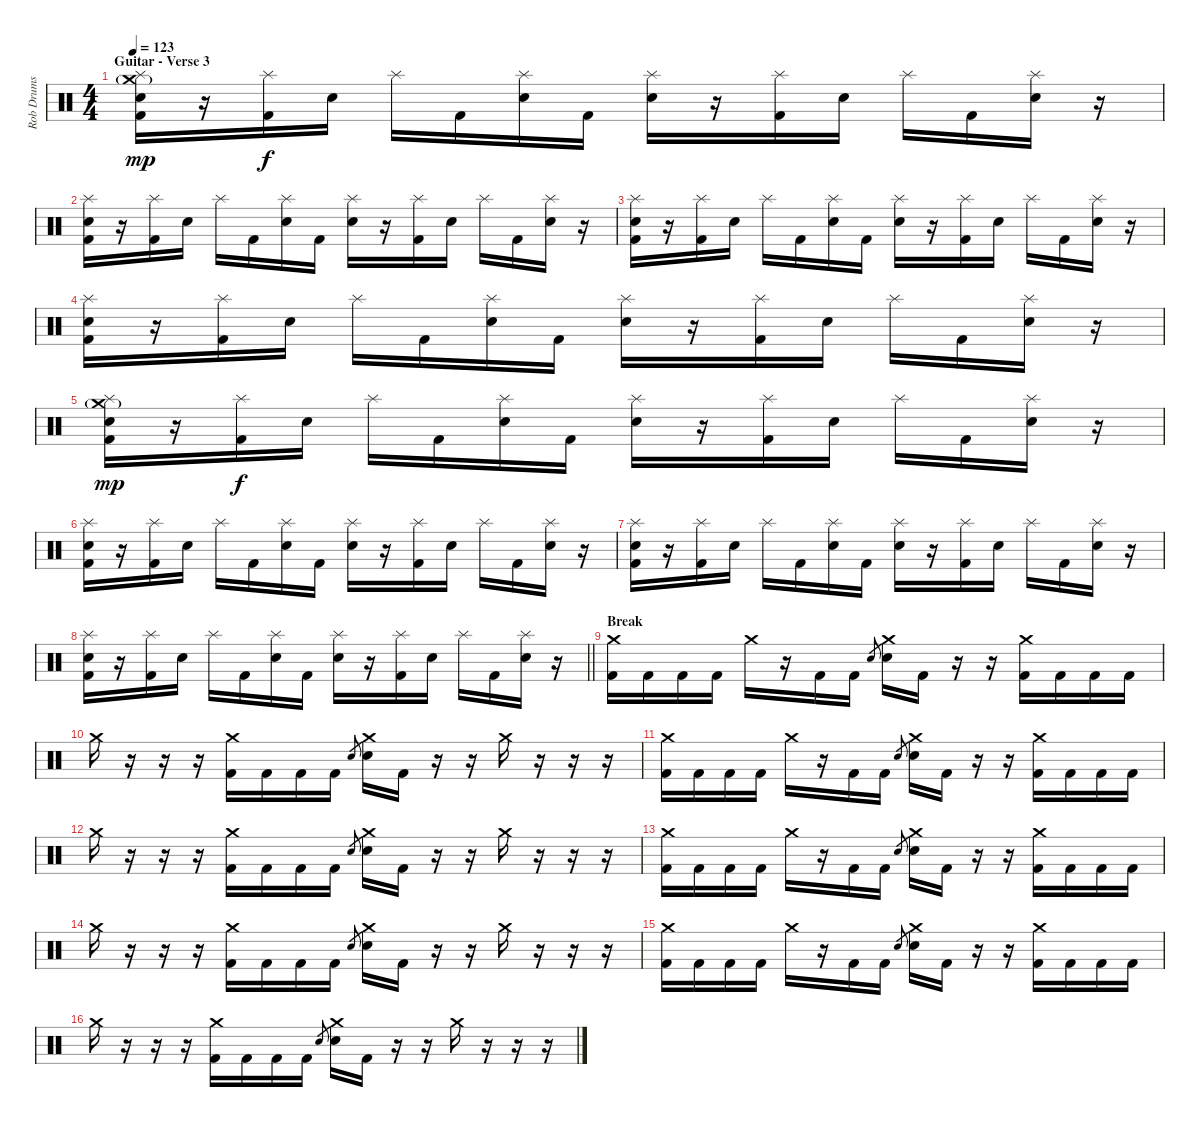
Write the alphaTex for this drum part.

\track ("Rob Drums" "Rob Drums") {instrument percussion}
\staff {score}
\articulation defaults
\ts (4 4)
\section ("" "Guitar - Verse 3")
\tempo 123
\clef neutral
\ks c
("Splash (hit)" "Crash medium (hit)"{g} "Electric Snare (hit)" "Kick (hit) 2").16{dy mp} r.16 ("Splash (hit)" "Kick (hit) 2").16{dy f} "Electric Snare (hit)".16 "Splash (hit)".16 "Kick (hit) 2".16 ("Splash (hit)" "Electric Snare (hit)").16 "Kick (hit) 2".16 ("Splash (hit)" "Electric Snare (hit)").16 r.16 ("Splash (hit)" "Kick (hit) 2").16 "Electric Snare (hit)".16 "Splash (hit)".16 "Kick (hit) 2".16 ("Splash (hit)" "Electric Snare (hit)").16 r.16 |
("Splash (hit)" "Electric Snare (hit)" "Kick (hit) 2").16 r.16 ("Splash (hit)" "Kick (hit) 2").16 "Electric Snare (hit)".16 "Splash (hit)".16 "Kick (hit) 2".16 ("Splash (hit)" "Electric Snare (hit)").16 "Kick (hit) 2".16 ("Splash (hit)" "Electric Snare (hit)").16 r.16 ("Splash (hit)" "Kick (hit) 2").16 "Electric Snare (hit)".16 "Splash (hit)".16 "Kick (hit) 2".16 ("Splash (hit)" "Electric Snare (hit)").16 r.16 |
("Splash (hit)" "Electric Snare (hit)" "Kick (hit) 2").16 r.16 ("Splash (hit)" "Kick (hit) 2").16 "Electric Snare (hit)".16 "Splash (hit)".16 "Kick (hit) 2".16 ("Splash (hit)" "Electric Snare (hit)").16 "Kick (hit) 2".16 ("Splash (hit)" "Electric Snare (hit)").16 r.16 ("Splash (hit)" "Kick (hit) 2").16 "Electric Snare (hit)".16 "Splash (hit)".16 "Kick (hit) 2".16 ("Splash (hit)" "Electric Snare (hit)").16 r.16 |
("Splash (hit)" "Electric Snare (hit)" "Kick (hit) 2").16 r.16 ("Splash (hit)" "Kick (hit) 2").16 "Electric Snare (hit)".16 "Splash (hit)".16 "Kick (hit) 2".16 ("Splash (hit)" "Electric Snare (hit)").16 "Kick (hit) 2".16 ("Splash (hit)" "Electric Snare (hit)").16 r.16 ("Splash (hit)" "Kick (hit) 2").16 "Electric Snare (hit)".16 "Splash (hit)".16 "Kick (hit) 2".16 ("Splash (hit)" "Electric Snare (hit)").16 r.16 |
("Splash (hit)" "Crash medium (hit)"{g} "Electric Snare (hit)" "Kick (hit) 2").16{dy mp} r.16 ("Splash (hit)" "Kick (hit) 2").16{dy f} "Electric Snare (hit)".16 "Splash (hit)".16 "Kick (hit) 2".16 ("Splash (hit)" "Electric Snare (hit)").16 "Kick (hit) 2".16 ("Splash (hit)" "Electric Snare (hit)").16 r.16 ("Splash (hit)" "Kick (hit) 2").16 "Electric Snare (hit)".16 "Splash (hit)".16 "Kick (hit) 2".16 ("Splash (hit)" "Electric Snare (hit)").16 r.16 |
("Splash (hit)" "Electric Snare (hit)" "Kick (hit) 2").16 r.16 ("Splash (hit)" "Kick (hit) 2").16 "Electric Snare (hit)".16 "Splash (hit)".16 "Kick (hit) 2".16 ("Splash (hit)" "Electric Snare (hit)").16 "Kick (hit) 2".16 ("Splash (hit)" "Electric Snare (hit)").16 r.16 ("Splash (hit)" "Kick (hit) 2").16 "Electric Snare (hit)".16 "Splash (hit)".16 "Kick (hit) 2".16 ("Splash (hit)" "Electric Snare (hit)").16 r.16 |
("Splash (hit)" "Electric Snare (hit)" "Kick (hit) 2").16 r.16 ("Splash (hit)" "Kick (hit) 2").16 "Electric Snare (hit)".16 "Splash (hit)".16 "Kick (hit) 2".16 ("Splash (hit)" "Electric Snare (hit)").16 "Kick (hit) 2".16 ("Splash (hit)" "Electric Snare (hit)").16 r.16 ("Splash (hit)" "Kick (hit) 2").16 "Electric Snare (hit)".16 "Splash (hit)".16 "Kick (hit) 2".16 ("Splash (hit)" "Electric Snare (hit)").16 r.16 |
\barLineRight lightlight
("Splash (hit)" "Electric Snare (hit)" "Kick (hit) 2").16 r.16 ("Splash (hit)" "Kick (hit) 2").16 "Electric Snare (hit)".16 "Splash (hit)".16 "Kick (hit) 2".16 ("Splash (hit)" "Electric Snare (hit)").16 "Kick (hit) 2".16 ("Splash (hit)" "Electric Snare (hit)").16 r.16 ("Splash (hit)" "Kick (hit) 2").16 "Electric Snare (hit)".16 "Splash (hit)".16 "Kick (hit) 2".16 ("Splash (hit)" "Electric Snare (hit)").16 r.16 |
\section ("" "Break")
("Crash medium (hit)" "Kick (hit) 2").16 "Kick (hit) 2".16 "Kick (hit) 2".16 "Kick (hit) 2".16 "Crash medium (hit)".16 r.16 "Kick (hit) 2".16 "Kick (hit) 2".16 "Electric Snare (hit)".8{gr} ("Crash medium (hit)" "Electric Snare (hit)").16 "Kick (hit) 2".16 r.16 r.16 ("Crash medium (hit)" "Kick (hit) 2").16 "Kick (hit) 2".16 "Kick (hit) 2".16 "Kick (hit) 2".16 |
"Crash medium (hit)".16 r.16 r.16 r.16 ("Crash medium (hit)" "Kick (hit) 2").16 "Kick (hit) 2".16 "Kick (hit) 2".16 "Kick (hit) 2".16 "Electric Snare (hit)".8{gr} ("Crash medium (hit)" "Electric Snare (hit)").16 "Kick (hit) 2".16 r.16 r.16 "Crash medium (hit)".16 r.16 r.16 r.16 |
("Crash medium (hit)" "Kick (hit) 2").16 "Kick (hit) 2".16 "Kick (hit) 2".16 "Kick (hit) 2".16 "Crash medium (hit)".16 r.16 "Kick (hit) 2".16 "Kick (hit) 2".16 "Electric Snare (hit)".8{gr} ("Crash medium (hit)" "Electric Snare (hit)").16 "Kick (hit) 2".16 r.16 r.16 ("Crash medium (hit)" "Kick (hit) 2").16 "Kick (hit) 2".16 "Kick (hit) 2".16 "Kick (hit) 2".16 |
"Crash medium (hit)".16 r.16 r.16 r.16 ("Crash medium (hit)" "Kick (hit) 2").16 "Kick (hit) 2".16 "Kick (hit) 2".16 "Kick (hit) 2".16 "Electric Snare (hit)".8{gr} ("Crash medium (hit)" "Electric Snare (hit)").16 "Kick (hit) 2".16 r.16 r.16 "Crash medium (hit)".16 r.16 r.16 r.16 |
("Crash medium (hit)" "Kick (hit) 2").16 "Kick (hit) 2".16 "Kick (hit) 2".16 "Kick (hit) 2".16 "Crash medium (hit)".16 r.16 "Kick (hit) 2".16 "Kick (hit) 2".16 "Electric Snare (hit)".8{gr} ("Crash medium (hit)" "Electric Snare (hit)").16 "Kick (hit) 2".16 r.16 r.16 ("Crash medium (hit)" "Kick (hit) 2").16 "Kick (hit) 2".16 "Kick (hit) 2".16 "Kick (hit) 2".16 |
"Crash medium (hit)".16 r.16 r.16 r.16 ("Crash medium (hit)" "Kick (hit) 2").16 "Kick (hit) 2".16 "Kick (hit) 2".16 "Kick (hit) 2".16 "Electric Snare (hit)".8{gr} ("Crash medium (hit)" "Electric Snare (hit)").16 "Kick (hit) 2".16 r.16 r.16 "Crash medium (hit)".16 r.16 r.16 r.16 |
("Crash medium (hit)" "Kick (hit) 2").16 "Kick (hit) 2".16 "Kick (hit) 2".16 "Kick (hit) 2".16 "Crash medium (hit)".16 r.16 "Kick (hit) 2".16 "Kick (hit) 2".16 "Electric Snare (hit)".8{gr} ("Crash medium (hit)" "Electric Snare (hit)").16 "Kick (hit) 2".16 r.16 r.16 ("Crash medium (hit)" "Kick (hit) 2").16 "Kick (hit) 2".16 "Kick (hit) 2".16 "Kick (hit) 2".16 |
"Crash medium (hit)".16 r.16 r.16 r.16 ("Crash medium (hit)" "Kick (hit) 2").16 "Kick (hit) 2".16 "Kick (hit) 2".16 "Kick (hit) 2".16 "Electric Snare (hit)".8{gr} ("Crash medium (hit)" "Electric Snare (hit)").16 "Kick (hit) 2".16 r.16 r.16 "Crash medium (hit)".16 r.16 r.16 r.16
